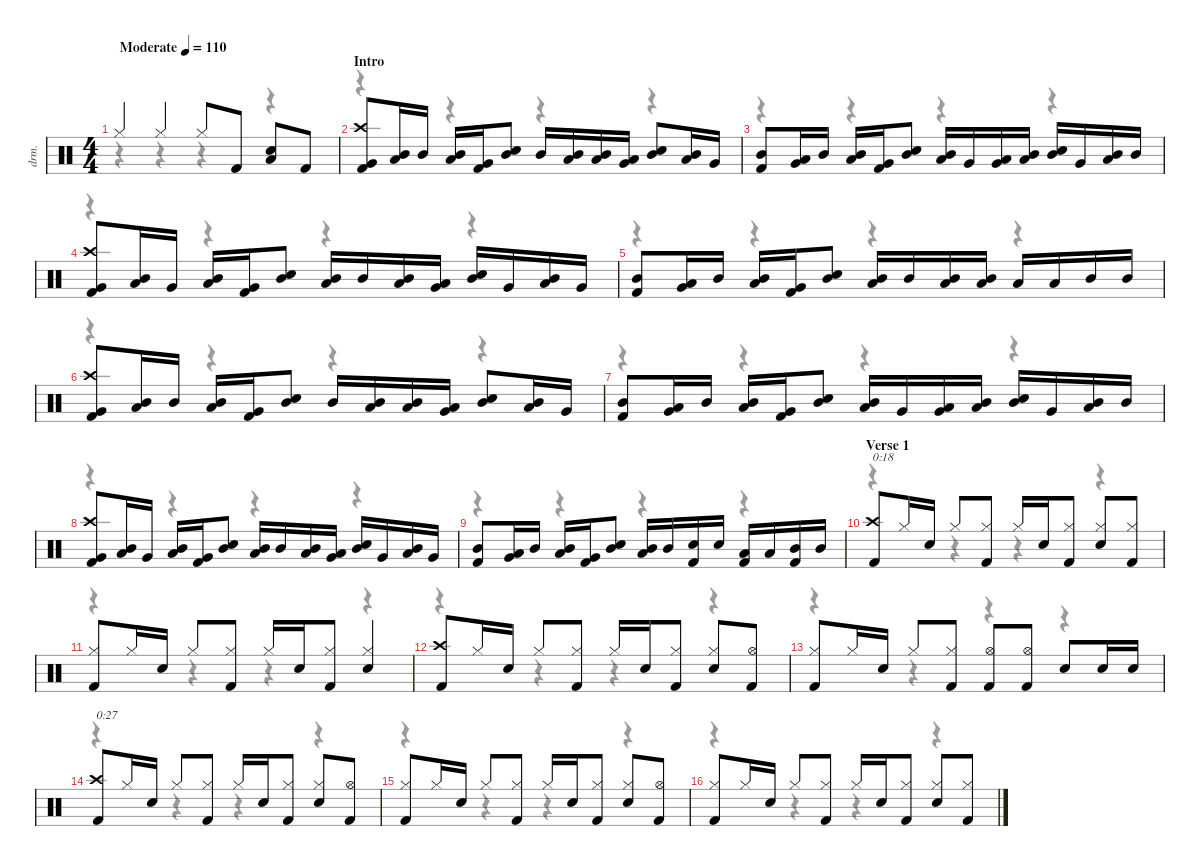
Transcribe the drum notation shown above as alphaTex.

\defaultSystemsLayout 4
\hideDynamics
\bracketExtendMode nobrackets
\otherSystemsTrackNameOrientation horizontal
\track ("Drums" "drm.") {instrument percussion}
\staff {score}
\articulation defaults
\voice
\ts (4 4)
\beaming (8 2 2 2 2)
\tempo (110 "Moderate")
\clef neutral
\ks c "Hi-Hat (closed)".4{dy f beam Up} "Hi-Hat (closed)".4{beam Up} "Hi-Hat (closed)".8{beam Up} "Kick (hit) 2".8{beam Up}
("Low Tom (hit)" "Snare (hit) 2").8{beam Up} "Kick (hit) 2".8{beam Up} |
\section ("" "Intro")
("Crash high (hit)" "Very Low Tom (hit)" "Kick (hit) 2").8{beam Up} ("Mid Tom (hit)" "Low Floor Tom (hit)").16{beam Up} "Mid Tom (hit)".16{beam Up} ("Mid Tom (hit)" "Low Floor Tom (hit)").16{beam Up} ("Very Low Tom (hit)" "Kick (hit) 2").16{beam Up} ("Mid Tom (hit)" "Snare (hit) 2").8{beam Up} "Mid Tom (hit)".16{beam Up} ("Mid Tom (hit)" "Low Floor Tom (hit)").16{beam Up} ("Mid Tom (hit)" "Low Floor Tom (hit)").16{beam Up} ("Very Low Tom (hit)" "Low Floor Tom (hit)").16{beam Up} ("Mid Tom (hit)" "Snare (hit) 2").8{beam Up} ("Mid Tom (hit)" "Low Floor Tom (hit)").16{beam Up} "Very Low Tom (hit)".16{beam Up} |
("Mid Tom (hit)" "Kick (hit) 2").8{beam Up} ("Very Low Tom (hit)" "Low Floor Tom (hit)").16{beam Up} "Mid Tom (hit)".16{beam Up} ("Mid Tom (hit)" "Low Floor Tom (hit)").16{beam Up} ("Very Low Tom (hit)" "Kick (hit) 2").16{beam Up} ("Mid Tom (hit)" "Snare (hit) 2").8{beam Up} ("Mid Tom (hit)" "Low Floor Tom (hit)").16{beam Up} "Very Low Tom (hit)".16{beam Up} ("Very Low Tom (hit)" "Low Floor Tom (hit)").16{beam Up} ("Mid Tom (hit)" "Low Floor Tom (hit)").16{beam Up} ("Mid Tom (hit)" "Snare (hit) 2").16{beam Up} "Very Low Tom (hit)".16{beam Up} ("Mid Tom (hit)" "Low Floor Tom (hit)").16{beam Up} "Mid Tom (hit)".16{beam Up} |
("Crash high (hit)" "Very Low Tom (hit)" "Kick (hit) 2").8{beam Up} ("Mid Tom (hit)" "Low Floor Tom (hit)").16{beam Up} "Very Low Tom (hit)".16{beam Up} ("Mid Tom (hit)" "Low Floor Tom (hit)").16{beam Up} ("Very Low Tom (hit)" "Kick (hit) 2").16{beam Up} ("Mid Tom (hit)" "Snare (hit) 2").8{beam Up} ("Mid Tom (hit)" "Low Floor Tom (hit)").16{beam Up} "Mid Tom (hit)".16{beam Up} ("Mid Tom (hit)" "Low Floor Tom (hit)").16{beam Up} ("Very Low Tom (hit)" "Low Floor Tom (hit)").16{beam Up} ("Mid Tom (hit)" "Snare (hit) 2").16{beam Up} "Very Low Tom (hit)".16{beam Up} ("Mid Tom (hit)" "Low Floor Tom (hit)").16{beam Up} "Very Low Tom (hit)".16{beam Up} |
("Mid Tom (hit)" "Kick (hit) 2").8{beam Up} ("Very Low Tom (hit)" "Low Floor Tom (hit)").16{beam Up} "Mid Tom (hit)".16{beam Up} ("Mid Tom (hit)" "Low Floor Tom (hit)").16{beam Up} ("Very Low Tom (hit)" "Kick (hit) 2").16{beam Up} ("Mid Tom (hit)" "Snare (hit) 2").8{beam Up} ("Mid Tom (hit)" "Low Floor Tom (hit)").16{beam Up} "Mid Tom (hit)".16{beam Up} ("Mid Tom (hit)" "Low Floor Tom (hit)").16{beam Up} ("Mid Tom (hit)" "Low Floor Tom (hit)").16{beam Up} "Low Tom (hit)".16{beam Up} "Low Tom (hit)".16{beam Up} "Mid Tom (hit)".16{beam Up} "Mid Tom (hit)".16{beam Up} |
("Crash high (hit)" "Very Low Tom (hit)" "Kick (hit) 2").8{beam Up} ("Mid Tom (hit)" "Low Floor Tom (hit)").16{beam Up} "Mid Tom (hit)".16{beam Up} ("Mid Tom (hit)" "Low Floor Tom (hit)").16{beam Up} ("Very Low Tom (hit)" "Kick (hit) 2").16{beam Up} ("Mid Tom (hit)" "Snare (hit) 2").8{beam Up} "Mid Tom (hit)".16{beam Up} ("Mid Tom (hit)" "Low Floor Tom (hit)").16{beam Up} ("Mid Tom (hit)" "Low Floor Tom (hit)").16{beam Up} ("Very Low Tom (hit)" "Low Floor Tom (hit)").16{beam Up} ("Mid Tom (hit)" "Snare (hit) 2").8{beam Up} ("Mid Tom (hit)" "Low Floor Tom (hit)").16{beam Up} "Very Low Tom (hit)".16{beam Up} |
("Mid Tom (hit)" "Kick (hit) 2").8{beam Up} ("Very Low Tom (hit)" "Low Floor Tom (hit)").16{beam Up} "Mid Tom (hit)".16{beam Up} ("Mid Tom (hit)" "Low Floor Tom (hit)").16{beam Up} ("Very Low Tom (hit)" "Kick (hit) 2").16{beam Up} ("Mid Tom (hit)" "Snare (hit) 2").8{beam Up} ("Mid Tom (hit)" "Low Floor Tom (hit)").16{beam Up} "Very Low Tom (hit)".16{beam Up} ("Very Low Tom (hit)" "Low Floor Tom (hit)").16{beam Up} ("Mid Tom (hit)" "Low Floor Tom (hit)").16{beam Up} ("Mid Tom (hit)" "Snare (hit) 2").16{beam Up} "Very Low Tom (hit)".16{beam Up} ("Mid Tom (hit)" "Low Floor Tom (hit)").16{beam Up} "Mid Tom (hit)".16{beam Up} |
("Crash high (hit)" "Very Low Tom (hit)" "Kick (hit) 2").8{beam Up} ("Mid Tom (hit)" "Low Floor Tom (hit)").16{beam Up} "Very Low Tom (hit)".16{beam Up} ("Mid Tom (hit)" "Low Floor Tom (hit)").16{beam Up} ("Very Low Tom (hit)" "Kick (hit) 2").16{beam Up} ("Mid Tom (hit)" "Snare (hit) 2").8{beam Up} ("Mid Tom (hit)" "Low Floor Tom (hit)").16{beam Up} "Mid Tom (hit)".16{beam Up} ("Mid Tom (hit)" "Low Floor Tom (hit)").16{beam Up} ("Very Low Tom (hit)" "Low Floor Tom (hit)").16{beam Up} ("Mid Tom (hit)" "Snare (hit) 2").16{beam Up} "Very Low Tom (hit)".16{beam Up} ("Mid Tom (hit)" "Low Floor Tom (hit)").16{beam Up} "Very Low Tom (hit)".16{beam Up} |
("Mid Tom (hit)" "Kick (hit) 2").8{beam Up} ("Very Low Tom (hit)" "Low Floor Tom (hit)").16{beam Up} "Mid Tom (hit)".16{beam Up} ("Mid Tom (hit)" "Low Floor Tom (hit)").16{beam Up} ("Very Low Tom (hit)" "Kick (hit) 2").16{beam Up} ("Mid Tom (hit)" "Snare (hit) 2").8{beam Up} ("Mid Tom (hit)" "Low Floor Tom (hit)").16{beam Up} "Mid Tom (hit)".16{beam Up} ("Snare (hit) 2" "Kick (hit) 2").16{beam Up} "Snare (hit) 2".16{beam Up} ("Low Tom (hit)" "Kick (hit) 2").16{beam Up} "Low Tom (hit)".16{beam Up} ("Mid Tom (hit)" "Kick (hit) 2").16{beam Up} "Mid Tom (hit)".16{beam Up} |
\section ("" "Verse 1")
("Crash high (hit)" "Kick (hit) 2").8{txt "0:18" beam Up} "Hi-Hat (closed)".16{beam Up} "Snare (hit) 2".16{beam Up} "Hi-Hat (closed)".8{beam Up} ("Hi-Hat (closed)" "Kick (hit) 2").8{beam Up} "Hi-Hat (closed)".16{beam Up} "Snare (hit) 2".16{beam Up} ("Hi-Hat (closed)" "Kick (hit) 2").8{beam Up} ("Hi-Hat (closed)" "Snare (hit) 2").8{beam Up} ("Hi-Hat (closed)" "Kick (hit) 2").8{beam Up} |
("Hi-Hat (closed)" "Kick (hit) 2").8{beam Up} "Hi-Hat (closed)".16{beam Up} "Snare (hit) 2".16{beam Up} "Hi-Hat (closed)".8{beam Up} ("Hi-Hat (closed)" "Kick (hit) 2").8{beam Up} "Hi-Hat (closed)".16{beam Up} "Snare (hit) 2".16{beam Up} ("Hi-Hat (closed)" "Kick (hit) 2").8{beam Up} ("Hi-Hat (closed)" "Snare (hit) 2").4{beam Up} |
("Crash high (hit)" "Kick (hit) 2").8{beam Up} "Hi-Hat (closed)".16{beam Up} "Snare (hit) 2".16{beam Up} "Hi-Hat (closed)".8{beam Up} ("Hi-Hat (closed)" "Kick (hit) 2").8{beam Up} "Hi-Hat (closed)".16{beam Up} "Snare (hit) 2".16{beam Up} ("Hi-Hat (closed)" "Kick (hit) 2").8{beam Up} ("Hi-Hat (closed)" "Snare (hit) 2").8{beam Up} ("Hi-Hat (open)" "Kick (hit) 2").8{beam Up} |
("Hi-Hat (closed)" "Kick (hit) 2").8{beam Up} "Hi-Hat (closed)".16{beam Up} "Snare (hit) 2".16{beam Up} "Hi-Hat (closed)".8{beam Up} ("Hi-Hat (closed)" "Kick (hit) 2").8{beam Up} ("Hi-Hat (open)" "Kick (hit) 2").8{beam Up} ("Hi-Hat (open)" "Kick (hit) 2").8{beam Up} "Snare (hit) 2".8{beam Up} "Snare (hit) 2".16{beam Up} "Snare (hit) 2".16{beam Up} |
("Crash high (hit)" "Kick (hit) 2").8{txt "0:27" beam Up} "Hi-Hat (closed)".16{beam Up} "Snare (hit) 2".16{beam Up} "Hi-Hat (closed)".8{beam Up} ("Hi-Hat (closed)" "Kick (hit) 2").8{beam Up} "Hi-Hat (closed)".16{beam Up} "Snare (hit) 2".16{beam Up} ("Hi-Hat (closed)" "Kick (hit) 2").8{beam Up} ("Hi-Hat (closed)" "Snare (hit) 2").8{beam Up} ("Hi-Hat (open)" "Kick (hit) 2").8{beam Up} |
("Hi-Hat (closed)" "Kick (hit) 2").8{beam Up} "Hi-Hat (closed)".16{beam Up} "Snare (hit) 2".16{beam Up} "Hi-Hat (closed)".8{beam Up} ("Hi-Hat (closed)" "Kick (hit) 2").8{beam Up} "Hi-Hat (closed)".16{beam Up} "Snare (hit) 2".16{beam Up} ("Hi-Hat (closed)" "Kick (hit) 2").8{beam Up} ("Hi-Hat (closed)" "Snare (hit) 2").8{beam Up} ("Hi-Hat (open)" "Kick (hit) 2").8{beam Up} |
("Hi-Hat (closed)" "Kick (hit) 2").8{beam Up} "Hi-Hat (closed)".16{beam Up} "Snare (hit) 2".16{beam Up} "Hi-Hat (closed)".8{beam Up} ("Hi-Hat (closed)" "Kick (hit) 2").8{beam Up} "Hi-Hat (closed)".16{beam Up} "Snare (hit) 2".16{beam Up} ("Hi-Hat (closed)" "Kick (hit) 2").8{beam Up} ("Hi-Hat (closed)" "Snare (hit) 2").8{beam Up} ("Hi-Hat (closed)" "Kick (hit) 2").8{beam Up}
\voice
\clef neutral
\ottava regular
\simile none
\ks c
r.4{dy mf beam Down} r.4{beam Down} r.4{beam Down} r.4{beam Down} |
r.4{beam Down} r.4{beam Down} r.4{beam Down} r.4{beam Down} |
r.4{beam Down} r.4{beam Down} r.4{beam Down} r.4{beam Down} |
r.4{beam Down} r.4{beam Down} r.4{beam Down} r.4{beam Down} |
r.4{beam Down} r.4{beam Down} r.4{beam Down} r.4{beam Down} |
r.4{beam Down} r.4{beam Down} r.4{beam Down} r.4{beam Down} |
r.4{beam Down} r.4{beam Down} r.4{beam Down} r.4{beam Down} |
r.4{beam Down} r.4{beam Down} r.4{beam Down} r.4{beam Down} |
r.4{beam Down} r.4{beam Down} r.4{beam Down} r.4{beam Down} |
r.4{beam Down} r.4{beam Down} r.4{beam Down} r.4{beam Down} |
r.4{beam Down} r.4{beam Down} r.4{beam Down} r.4{beam Down} |
r.4{beam Down} r.4{beam Down} r.4{beam Down} r.4{beam Down} |
r.4{beam Down} r.4{beam Down} r.4{beam Down} r.4{beam Down} |
r.4{beam Down} r.4{beam Down} r.4{beam Down} r.4{beam Down} |
r.4{beam Down} r.4{beam Down} r.4{beam Down} r.4{beam Down} |
r.4{beam Down} r.4{beam Down} r.4{beam Down} r.4{beam Down}
